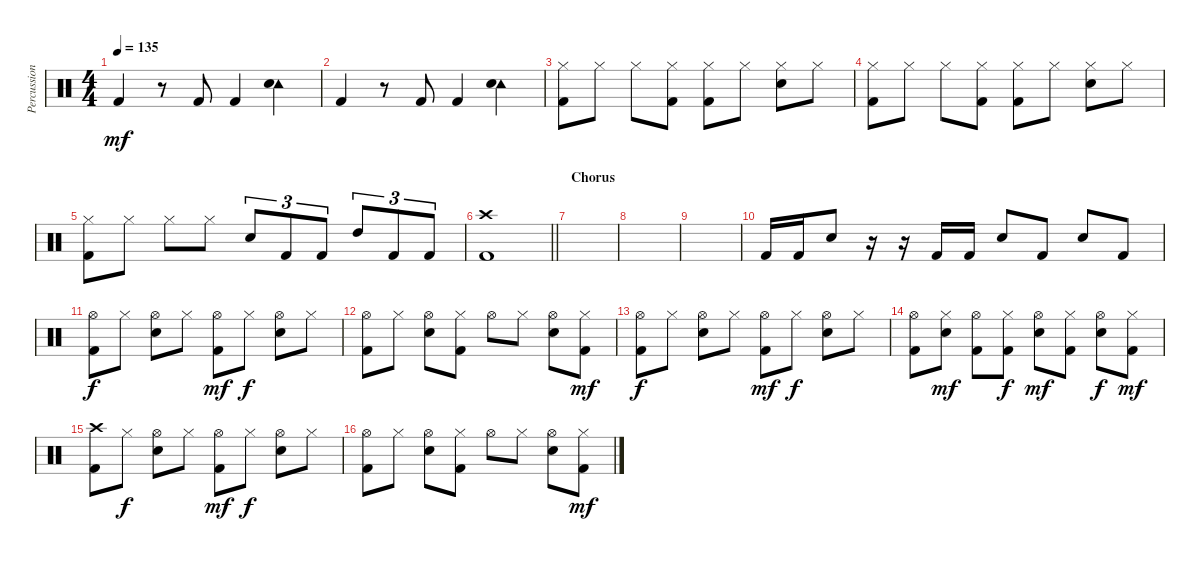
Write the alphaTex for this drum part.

\track ("Percussion" "Percussion") {instrument percussion}
\staff {score}
\articulation defaults
\ts (4 4)
\tempo 135
\clef neutral
\ks c "Kick (hit) 2".4{dy mf}
r.8 "Kick (hit) 2".8 "Kick (hit) 2".4 ("Tambourine (hit)" "Electric Snare (hit)").4 |
"Kick (hit) 2".4 r.8 "Kick (hit) 2".8 "Kick (hit) 2".4 ("Tambourine (hit)" "Electric Snare (hit)").4 |
("Hi-Hat (closed)" "Kick (hit) 2").8 "Hi-Hat (closed)".8 "Hi-Hat (closed)".8 ("Hi-Hat (closed)" "Kick (hit) 2").8 ("Hi-Hat (closed)" "Kick (hit) 2").8 "Hi-Hat (closed)".8 ("Hi-Hat (closed)" "Electric Snare (hit)").8 "Hi-Hat (closed)".8 |
("Hi-Hat (closed)" "Kick (hit) 2").8 "Hi-Hat (closed)".8 "Hi-Hat (closed)".8 ("Hi-Hat (closed)" "Kick (hit) 2").8 ("Hi-Hat (closed)" "Kick (hit) 2").8 "Hi-Hat (closed)".8 ("Hi-Hat (closed)" "Electric Snare (hit)").8 "Hi-Hat (closed)".8 |
("Hi-Hat (closed)" "Kick (hit) 2").8 "Hi-Hat (closed)".8 "Hi-Hat (closed)".8 "Hi-Hat (closed)".8 "Electric Snare (hit)".8{tu (3 2)} "Kick (hit) 2".8{tu (3 2)} "Kick (hit) 2".8{tu (3 2)} "High Tom (hit)".8{tu (3 2)} "Kick (hit) 2".8{tu (3 2)} "Kick (hit) 2".8{tu (3 2)} |
\barLineRight lightlight
("Crash high (hit)" "Kick (hit) 2").1 |
\section ("" "Chorus")
|
|
|
"Kick (hit) 2".16 "Kick (hit) 2".16 "Electric Snare (hit)".8 r.16 r.16 "Kick (hit) 2".16 "Kick (hit) 2".16 "Electric Snare (hit)".8 "Kick (hit) 2".8 "Electric Snare (hit)".8 "Kick (hit) 2".8 |
("Hi-Hat (open)" "Kick (hit) 2").8{dy f} "Hi-Hat (closed)".8 ("Hi-Hat (open)" "Electric Snare (hit)").8 "Hi-Hat (closed)".8 ("Hi-Hat (open)" "Kick (hit) 2").8{dy mf} "Hi-Hat (closed)".8{dy f} ("Hi-Hat (open)" "Electric Snare (hit)").8 "Hi-Hat (closed)".8 |
("Hi-Hat (open)" "Kick (hit) 2").8 "Hi-Hat (closed)".8 ("Hi-Hat (open)" "Electric Snare (hit)").8 ("Hi-Hat (closed)" "Kick (hit) 2").8 "Hi-Hat (open)".8 "Hi-Hat (closed)".8 ("Hi-Hat (open)" "Electric Snare (hit)").8 ("Hi-Hat (closed)" "Kick (hit) 2").8{dy mf} |
("Hi-Hat (open)" "Kick (hit) 2").8{dy f} "Hi-Hat (closed)".8 ("Hi-Hat (open)" "Electric Snare (hit)").8 "Hi-Hat (closed)".8 ("Hi-Hat (open)" "Kick (hit) 2").8{dy mf} "Hi-Hat (closed)".8{dy f} ("Hi-Hat (open)" "Electric Snare (hit)").8 "Hi-Hat (closed)".8 |
("Hi-Hat (open)" "Kick (hit) 2").8 ("Hi-Hat (closed)" "Electric Snare (hit)").8{dy mf} ("Hi-Hat (open)" "Kick (hit) 2").8 ("Hi-Hat (closed)" "Kick (hit) 2").8{dy f} ("Hi-Hat (open)" "Electric Snare (hit)").8{dy mf} ("Hi-Hat (closed)" "Kick (hit) 2").8 ("Hi-Hat (open)" "Electric Snare (hit)").8{dy f} ("Hi-Hat (closed)" "Kick (hit) 2").8{dy mf} |
("Crash high (hit)" "Kick (hit) 2").8 "Hi-Hat (closed)".8{dy f} ("Hi-Hat (open)" "Electric Snare (hit)").8 "Hi-Hat (closed)".8 ("Hi-Hat (open)" "Kick (hit) 2").8{dy mf} "Hi-Hat (closed)".8{dy f} ("Hi-Hat (open)" "Electric Snare (hit)").8 "Hi-Hat (closed)".8 |
("Hi-Hat (open)" "Kick (hit) 2").8 "Hi-Hat (closed)".8 ("Hi-Hat (open)" "Electric Snare (hit)").8 ("Hi-Hat (closed)" "Kick (hit) 2").8 "Hi-Hat (open)".8 "Hi-Hat (closed)".8 ("Hi-Hat (open)" "Electric Snare (hit)").8 ("Hi-Hat (closed)" "Kick (hit) 2").8{dy mf}
